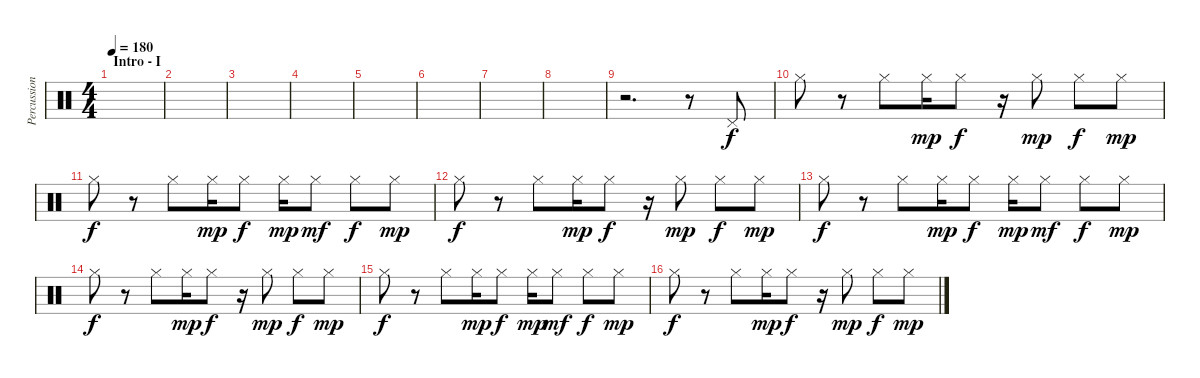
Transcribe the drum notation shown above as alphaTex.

\track ("Percussion" "Percussion") {instrument percussion}
\staff {score}
\articulation defaults
\ts (4 4)
\section ("" "Intro - I")
\tempo 180
\tempo 105
\tempo 180
\clef neutral
\ks c
|
|
|
|
|
|
|
|
r.2{d} r.8 "Pedal Hi-Hat (hit)".8 |
"Hi-Hat (closed)".8 r.8 "Hi-Hat (closed)".8 "Hi-Hat (closed)".16{dy mp} "Hi-Hat (closed)".8{dy f} r.16 "Hi-Hat (closed)".8{dy mp} "Hi-Hat (closed)".8{dy f} "Hi-Hat (closed)".8{dy mp} |
"Hi-Hat (closed)".8{dy f} r.8 "Hi-Hat (closed)".8 "Hi-Hat (closed)".16{dy mp} "Hi-Hat (closed)".8{dy f} "Hi-Hat (closed)".16{dy mp} "Hi-Hat (closed)".8{dy mf} "Hi-Hat (closed)".8{dy f} "Hi-Hat (closed)".8{dy mp} |
"Hi-Hat (closed)".8{dy f} r.8 "Hi-Hat (closed)".8 "Hi-Hat (closed)".16{dy mp} "Hi-Hat (closed)".8{dy f} r.16 "Hi-Hat (closed)".8{dy mp} "Hi-Hat (closed)".8{dy f} "Hi-Hat (closed)".8{dy mp} |
"Hi-Hat (closed)".8{dy f} r.8 "Hi-Hat (closed)".8 "Hi-Hat (closed)".16{dy mp} "Hi-Hat (closed)".8{dy f} "Hi-Hat (closed)".16{dy mp} "Hi-Hat (closed)".8{dy mf} "Hi-Hat (closed)".8{dy f} "Hi-Hat (closed)".8{dy mp} |
"Hi-Hat (closed)".8{dy f} r.8 "Hi-Hat (closed)".8 "Hi-Hat (closed)".16{dy mp} "Hi-Hat (closed)".8{dy f} r.16 "Hi-Hat (closed)".8{dy mp} "Hi-Hat (closed)".8{dy f} "Hi-Hat (closed)".8{dy mp} |
"Hi-Hat (closed)".8{dy f} r.8 "Hi-Hat (closed)".8 "Hi-Hat (closed)".16{dy mp} "Hi-Hat (closed)".8{dy f} "Hi-Hat (closed)".16{dy mp} "Hi-Hat (closed)".8{dy mf} "Hi-Hat (closed)".8{dy f} "Hi-Hat (closed)".8{dy mp} |
"Hi-Hat (closed)".8{dy f} r.8 "Hi-Hat (closed)".8 "Hi-Hat (closed)".16{dy mp} "Hi-Hat (closed)".8{dy f} r.16 "Hi-Hat (closed)".8{dy mp} "Hi-Hat (closed)".8{dy f} "Hi-Hat (closed)".8{dy mp}
